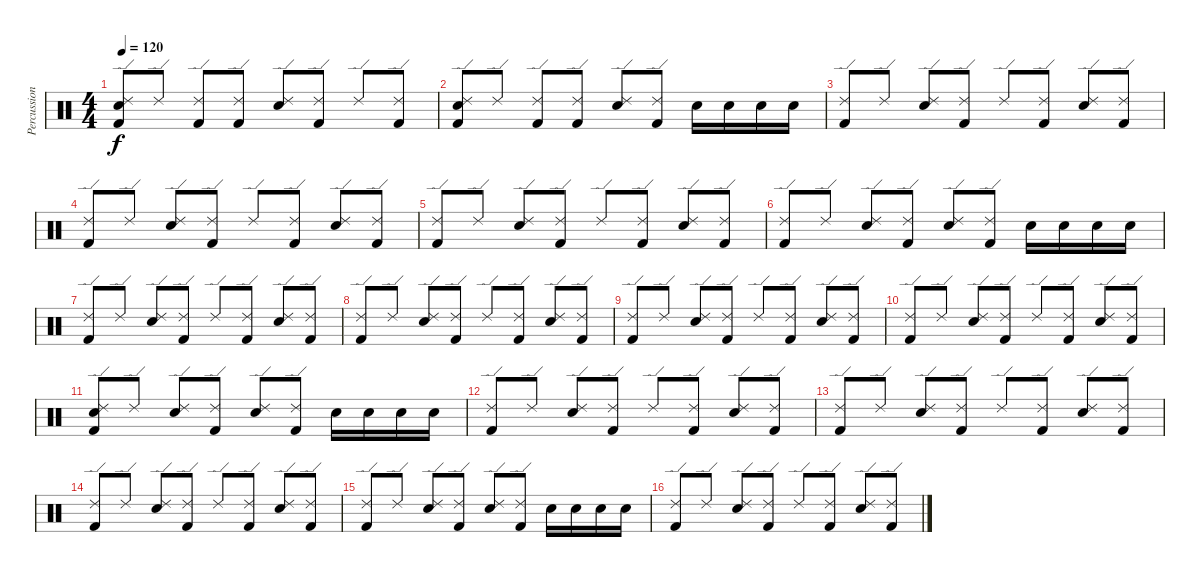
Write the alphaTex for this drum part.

\track ("Percussion" "Percussion") {instrument percussion}
\staff {score}
\articulation defaults
\ts (4 4)
\tempo 120
\clef neutral
\ks c
("Kick (hit) 2" "Electric Snare (hit)" "Ride (edge) 2").8{dy f} "Ride (edge) 2".8 ("Kick (hit) 2" "Ride (edge) 2").8 ("Kick (hit) 2" "Ride (edge) 2").8 ("Electric Snare (hit)" "Ride (edge) 2").8 ("Kick (hit) 2" "Ride (edge) 2").8 "Ride (edge) 2".8 ("Kick (hit) 2" "Ride (edge) 2").8 |
("Kick (hit) 2" "Electric Snare (hit)" "Ride (edge) 2").8 "Ride (edge) 2".8 ("Kick (hit) 2" "Ride (edge) 2").8 ("Kick (hit) 2" "Ride (edge) 2").8 ("Electric Snare (hit)" "Ride (edge) 2").8 ("Kick (hit) 2" "Ride (edge) 2").8 "Electric Snare (hit)".16 "Electric Snare (hit)".16 "Electric Snare (hit)".16 "Electric Snare (hit)".16 |
("Kick (hit) 2" "Ride (edge) 2").8 "Ride (edge) 2".8 ("Electric Snare (hit)" "Ride (edge) 2").8 ("Kick (hit) 2" "Ride (edge) 2").8 "Ride (edge) 2".8 ("Kick (hit) 2" "Ride (edge) 2").8 ("Electric Snare (hit)" "Ride (edge) 2").8 ("Kick (hit) 2" "Ride (edge) 2").8 |
("Kick (hit) 2" "Ride (edge) 2").8 "Ride (edge) 2".8 ("Electric Snare (hit)" "Ride (edge) 2").8 ("Kick (hit) 2" "Ride (edge) 2").8 "Ride (edge) 2".8 ("Kick (hit) 2" "Ride (edge) 2").8 ("Electric Snare (hit)" "Ride (edge) 2").8 ("Kick (hit) 2" "Ride (edge) 2").8 |
("Kick (hit) 2" "Ride (edge) 2").8 "Ride (edge) 2".8 ("Electric Snare (hit)" "Ride (edge) 2").8 ("Kick (hit) 2" "Ride (edge) 2").8 "Ride (edge) 2".8 ("Kick (hit) 2" "Ride (edge) 2").8 ("Electric Snare (hit)" "Ride (edge) 2").8 ("Kick (hit) 2" "Ride (edge) 2").8 |
("Kick (hit) 2" "Ride (edge) 2").8 "Ride (edge) 2".8 ("Electric Snare (hit)" "Ride (edge) 2").8 ("Kick (hit) 2" "Ride (edge) 2").8 ("Electric Snare (hit)" "Ride (edge) 2").8 ("Kick (hit) 2" "Ride (edge) 2").8 "Electric Snare (hit)".16 "Electric Snare (hit)".16 "Electric Snare (hit)".16 "Electric Snare (hit)".16 |
("Kick (hit) 2" "Ride (edge) 2").8 "Ride (edge) 2".8 ("Electric Snare (hit)" "Ride (edge) 2").8 ("Kick (hit) 2" "Ride (edge) 2").8 "Ride (edge) 2".8 ("Kick (hit) 2" "Ride (edge) 2").8 ("Electric Snare (hit)" "Ride (edge) 2").8 ("Kick (hit) 2" "Ride (edge) 2").8 |
("Kick (hit) 2" "Ride (edge) 2").8 "Ride (edge) 2".8 ("Electric Snare (hit)" "Ride (edge) 2").8 ("Kick (hit) 2" "Ride (edge) 2").8 "Ride (edge) 2".8 ("Kick (hit) 2" "Ride (edge) 2").8 ("Electric Snare (hit)" "Ride (edge) 2").8 ("Kick (hit) 2" "Ride (edge) 2").8 |
("Kick (hit) 2" "Ride (edge) 2").8 "Ride (edge) 2".8 ("Electric Snare (hit)" "Ride (edge) 2").8 ("Kick (hit) 2" "Ride (edge) 2").8 "Ride (edge) 2".8 ("Kick (hit) 2" "Ride (edge) 2").8 ("Electric Snare (hit)" "Ride (edge) 2").8 ("Kick (hit) 2" "Ride (edge) 2").8 |
("Kick (hit) 2" "Ride (edge) 2").8 "Ride (edge) 2".8 ("Electric Snare (hit)" "Ride (edge) 2").8 ("Kick (hit) 2" "Ride (edge) 2").8 "Ride (edge) 2".8 ("Kick (hit) 2" "Ride (edge) 2").8 ("Electric Snare (hit)" "Ride (edge) 2").8 ("Kick (hit) 2" "Ride (edge) 2").8 |
("Kick (hit) 2" "Electric Snare (hit)" "Ride (edge) 2").8 "Ride (edge) 2".8 ("Electric Snare (hit)" "Ride (edge) 2").8 ("Kick (hit) 2" "Ride (edge) 2").8 ("Electric Snare (hit)" "Ride (edge) 2").8 ("Kick (hit) 2" "Ride (edge) 2").8 "Electric Snare (hit)".16 "Electric Snare (hit)".16 "Electric Snare (hit)".16 "Electric Snare (hit)".16 |
("Kick (hit) 2" "Ride (edge) 2").8 "Ride (edge) 2".8 ("Electric Snare (hit)" "Ride (edge) 2").8 ("Kick (hit) 2" "Ride (edge) 2").8 "Ride (edge) 2".8 ("Kick (hit) 2" "Ride (edge) 2").8 ("Electric Snare (hit)" "Ride (edge) 2").8 ("Kick (hit) 2" "Ride (edge) 2").8 |
("Kick (hit) 2" "Ride (edge) 2").8 "Ride (edge) 2".8 ("Electric Snare (hit)" "Ride (edge) 2").8 ("Kick (hit) 2" "Ride (edge) 2").8 "Ride (edge) 2".8 ("Kick (hit) 2" "Ride (edge) 2").8 ("Electric Snare (hit)" "Ride (edge) 2").8 ("Kick (hit) 2" "Ride (edge) 2").8 |
("Kick (hit) 2" "Ride (edge) 2").8 "Ride (edge) 2".8 ("Electric Snare (hit)" "Ride (edge) 2").8 ("Kick (hit) 2" "Ride (edge) 2").8 "Ride (edge) 2".8 ("Kick (hit) 2" "Ride (edge) 2").8 ("Electric Snare (hit)" "Ride (edge) 2").8 ("Kick (hit) 2" "Ride (edge) 2").8 |
("Kick (hit) 2" "Ride (edge) 2").8 "Ride (edge) 2".8 ("Electric Snare (hit)" "Ride (edge) 2").8 ("Kick (hit) 2" "Ride (edge) 2").8 ("Electric Snare (hit)" "Ride (edge) 2").8 ("Kick (hit) 2" "Ride (edge) 2").8 "Electric Snare (hit)".16 "Electric Snare (hit)".16 "Electric Snare (hit)".16 "Electric Snare (hit)".16 |
("Kick (hit) 2" "Ride (edge) 2").8 "Ride (edge) 2".8 ("Electric Snare (hit)" "Ride (edge) 2").8 ("Kick (hit) 2" "Ride (edge) 2").8 "Ride (edge) 2".8 ("Kick (hit) 2" "Ride (edge) 2").8 ("Electric Snare (hit)" "Ride (edge) 2").8 ("Kick (hit) 2" "Ride (edge) 2").8
